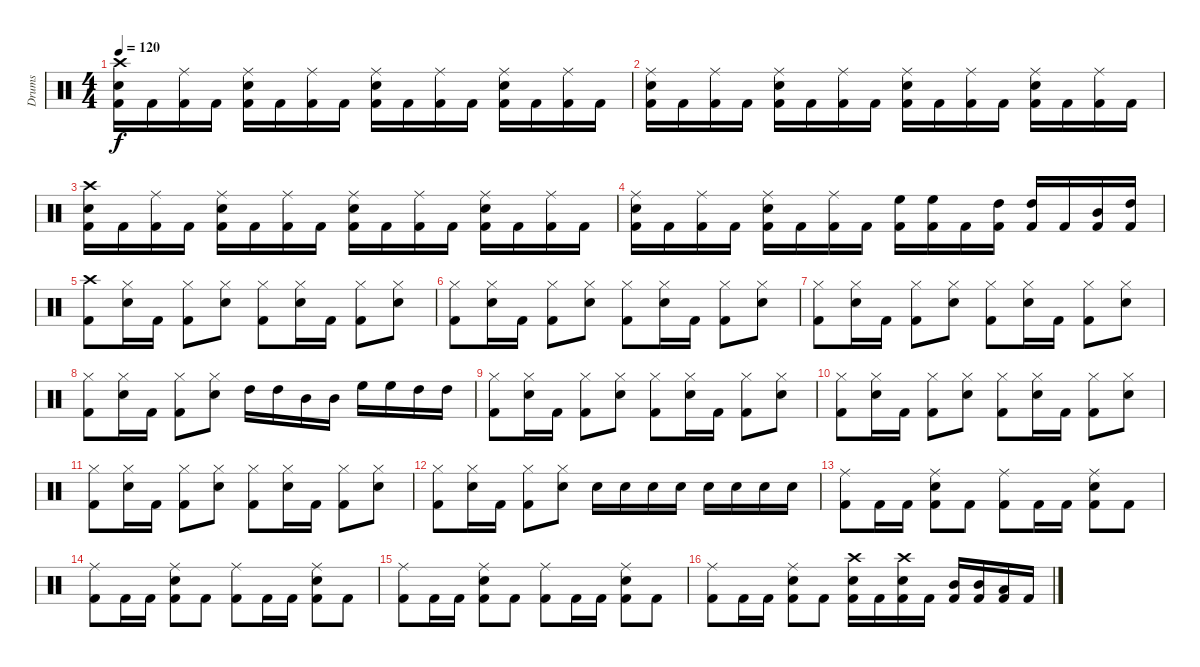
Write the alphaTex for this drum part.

\track ("Drums" "Drums") {instrument percussion}
\staff {score}
\articulation defaults
\ts (4 4)
\tempo 120
\clef neutral
\ks c
("Kick (hit) 2" "Electric Snare (hit)" "Crash high (hit)").16{dy f} "Kick (hit) 2".16 ("Kick (hit) 2" "Ride (middle)").16 "Kick (hit) 2".16 ("Kick (hit) 2" "Electric Snare (hit)" "Ride (middle)").16 "Kick (hit) 2".16 ("Kick (hit) 2" "Ride (middle)").16 "Kick (hit) 2".16 ("Kick (hit) 2" "Electric Snare (hit)" "Ride (middle)").16 "Kick (hit) 2".16 ("Kick (hit) 2" "Ride (middle)").16 "Kick (hit) 2".16 ("Kick (hit) 2" "Electric Snare (hit)" "Ride (middle)").16 "Kick (hit) 2".16 ("Kick (hit) 2" "Ride (middle)").16 "Kick (hit) 2".16 |
("Kick (hit) 2" "Electric Snare (hit)" "Ride (middle)").16 "Kick (hit) 2".16 ("Kick (hit) 2" "Ride (middle)").16 "Kick (hit) 2".16 ("Kick (hit) 2" "Electric Snare (hit)" "Ride (middle)").16 "Kick (hit) 2".16 ("Kick (hit) 2" "Ride (middle)").16 "Kick (hit) 2".16 ("Kick (hit) 2" "Electric Snare (hit)" "Ride (middle)").16 "Kick (hit) 2".16 ("Kick (hit) 2" "Ride (middle)").16 "Kick (hit) 2".16 ("Kick (hit) 2" "Electric Snare (hit)" "Ride (middle)").16 "Kick (hit) 2".16 ("Kick (hit) 2" "Ride (middle)").16 "Kick (hit) 2".16 |
("Kick (hit) 2" "Electric Snare (hit)" "Crash high (hit)").16 "Kick (hit) 2".16 ("Kick (hit) 2" "Ride (middle)").16 "Kick (hit) 2".16 ("Kick (hit) 2" "Electric Snare (hit)" "Ride (middle)").16 "Kick (hit) 2".16 ("Kick (hit) 2" "Ride (middle)").16 "Kick (hit) 2".16 ("Kick (hit) 2" "Electric Snare (hit)" "Ride (middle)").16 "Kick (hit) 2".16 ("Kick (hit) 2" "Ride (middle)").16 "Kick (hit) 2".16 ("Kick (hit) 2" "Electric Snare (hit)" "Ride (middle)").16 "Kick (hit) 2".16 ("Kick (hit) 2" "Ride (middle)").16 "Kick (hit) 2".16 |
("Kick (hit) 2" "Electric Snare (hit)" "Ride (middle)").16 "Kick (hit) 2".16 ("Kick (hit) 2" "Ride (middle)").16 "Kick (hit) 2".16 ("Kick (hit) 2" "Electric Snare (hit)" "Ride (middle)").16 "Kick (hit) 2".16 ("Kick (hit) 2" "Ride (middle)").16 "Kick (hit) 2".16 ("Kick (hit) 2" "High Floor Tom (hit)").16 ("Kick (hit) 2" "High Floor Tom (hit)").16 "Kick (hit) 2".16 ("Kick (hit) 2" "High Tom (hit)").16 ("Kick (hit) 2" "High Tom (hit)").16 "Kick (hit) 2".16 ("Kick (hit) 2" "Mid Tom (hit)").16 ("Kick (hit) 2" "High Tom (hit)").16 |
("Kick (hit) 2" "Crash high (hit)").8 ("Electric Snare (hit)" "Hi-Hat (closed)").16 "Kick (hit) 2".16 ("Kick (hit) 2" "Hi-Hat (closed)").8 ("Electric Snare (hit)" "Hi-Hat (closed)").8 ("Kick (hit) 2" "Hi-Hat (closed)").8 ("Electric Snare (hit)" "Hi-Hat (closed)").16 "Kick (hit) 2".16 ("Kick (hit) 2" "Hi-Hat (closed)").8 ("Electric Snare (hit)" "Hi-Hat (closed)").8 |
("Kick (hit) 2" "Hi-Hat (closed)").8 ("Electric Snare (hit)" "Hi-Hat (closed)").16 "Kick (hit) 2".16 ("Kick (hit) 2" "Hi-Hat (closed)").8 ("Electric Snare (hit)" "Hi-Hat (closed)").8 ("Kick (hit) 2" "Hi-Hat (closed)").8 ("Electric Snare (hit)" "Hi-Hat (closed)").16 "Kick (hit) 2".16 ("Kick (hit) 2" "Hi-Hat (closed)").8 ("Electric Snare (hit)" "Hi-Hat (closed)").8 |
("Kick (hit) 2" "Hi-Hat (closed)").8 ("Electric Snare (hit)" "Hi-Hat (closed)").16 "Kick (hit) 2".16 ("Kick (hit) 2" "Hi-Hat (closed)").8 ("Electric Snare (hit)" "Hi-Hat (closed)").8 ("Kick (hit) 2" "Hi-Hat (closed)").8 ("Electric Snare (hit)" "Hi-Hat (closed)").16 "Kick (hit) 2".16 ("Kick (hit) 2" "Hi-Hat (closed)").8 ("Electric Snare (hit)" "Hi-Hat (closed)").8 |
("Kick (hit) 2" "Hi-Hat (closed)").8 ("Electric Snare (hit)" "Hi-Hat (closed)").16 "Kick (hit) 2".16 ("Kick (hit) 2" "Hi-Hat (closed)").8 ("Electric Snare (hit)" "Hi-Hat (closed)").8 "High Tom (hit)".16 "High Tom (hit)".16 "Mid Tom (hit)".16 "Mid Tom (hit)".16 "High Floor Tom (hit)".16 "High Floor Tom (hit)".16 "High Tom (hit)".16 "High Tom (hit)".16 |
("Kick (hit) 2" "Hi-Hat (closed)").8 ("Electric Snare (hit)" "Hi-Hat (closed)").16 "Kick (hit) 2".16 ("Kick (hit) 2" "Hi-Hat (closed)").8 ("Electric Snare (hit)" "Hi-Hat (closed)").8 ("Kick (hit) 2" "Hi-Hat (closed)").8 ("Electric Snare (hit)" "Hi-Hat (closed)").16 "Kick (hit) 2".16 ("Kick (hit) 2" "Hi-Hat (closed)").8 ("Electric Snare (hit)" "Hi-Hat (closed)").8 |
("Kick (hit) 2" "Hi-Hat (closed)").8 ("Electric Snare (hit)" "Hi-Hat (closed)").16 "Kick (hit) 2".16 ("Kick (hit) 2" "Hi-Hat (closed)").8 ("Electric Snare (hit)" "Hi-Hat (closed)").8 ("Kick (hit) 2" "Hi-Hat (closed)").8 ("Electric Snare (hit)" "Hi-Hat (closed)").16 "Kick (hit) 2".16 ("Kick (hit) 2" "Hi-Hat (closed)").8 ("Electric Snare (hit)" "Hi-Hat (closed)").8 |
("Kick (hit) 2" "Hi-Hat (closed)").8 ("Electric Snare (hit)" "Hi-Hat (closed)").16 "Kick (hit) 2".16 ("Kick (hit) 2" "Hi-Hat (closed)").8 ("Electric Snare (hit)" "Hi-Hat (closed)").8 ("Kick (hit) 2" "Hi-Hat (closed)").8 ("Electric Snare (hit)" "Hi-Hat (closed)").16 "Kick (hit) 2".16 ("Kick (hit) 2" "Hi-Hat (closed)").8 ("Electric Snare (hit)" "Hi-Hat (closed)").8 |
("Kick (hit) 2" "Hi-Hat (closed)").8 ("Electric Snare (hit)" "Hi-Hat (closed)").16 "Kick (hit) 2".16 ("Kick (hit) 2" "Hi-Hat (closed)").8 ("Electric Snare (hit)" "Hi-Hat (closed)").8 "Electric Snare (hit)".16 "Electric Snare (hit)".16 "Electric Snare (hit)".16 "Electric Snare (hit)".16 "Electric Snare (hit)".16 "Electric Snare (hit)".16 "Electric Snare (hit)".16 "Electric Snare (hit)".16 |
("Kick (hit) 2" "Ride (middle)").8 "Kick (hit) 2".16 "Kick (hit) 2".16 ("Kick (hit) 2" "Electric Snare (hit)" "Ride (middle)").8 "Kick (hit) 2".8 ("Kick (hit) 2" "Ride (middle)").8 "Kick (hit) 2".16 "Kick (hit) 2".16 ("Kick (hit) 2" "Electric Snare (hit)" "Ride (middle)").8 "Kick (hit) 2".8 |
("Kick (hit) 2" "Ride (middle)").8 "Kick (hit) 2".16 "Kick (hit) 2".16 ("Kick (hit) 2" "Electric Snare (hit)" "Ride (middle)").8 "Kick (hit) 2".8 ("Kick (hit) 2" "Ride (middle)").8 "Kick (hit) 2".16 "Kick (hit) 2".16 ("Kick (hit) 2" "Electric Snare (hit)" "Ride (middle)").8 "Kick (hit) 2".8 |
("Kick (hit) 2" "Ride (middle)").8 "Kick (hit) 2".16 "Kick (hit) 2".16 ("Kick (hit) 2" "Electric Snare (hit)" "Ride (middle)").8 "Kick (hit) 2".8 ("Kick (hit) 2" "Ride (middle)").8 "Kick (hit) 2".16 "Kick (hit) 2".16 ("Kick (hit) 2" "Electric Snare (hit)" "Ride (middle)").8 "Kick (hit) 2".8 |
("Kick (hit) 2" "Ride (middle)").8 "Kick (hit) 2".16 "Kick (hit) 2".16 ("Kick (hit) 2" "Electric Snare (hit)" "Ride (middle)").8 "Kick (hit) 2".8 ("Kick (hit) 2" "Electric Snare (hit)" "Crash high (hit)").16 "Kick (hit) 2".16 ("Kick (hit) 2" "Electric Snare (hit)" "Crash high (hit)").16 "Kick (hit) 2".16 ("Kick (hit) 2" "Mid Tom (hit)").16 ("Kick (hit) 2" "Mid Tom (hit)").16 ("Kick (hit) 2" "Low Tom (hit)").16 "Kick (hit) 2".16
